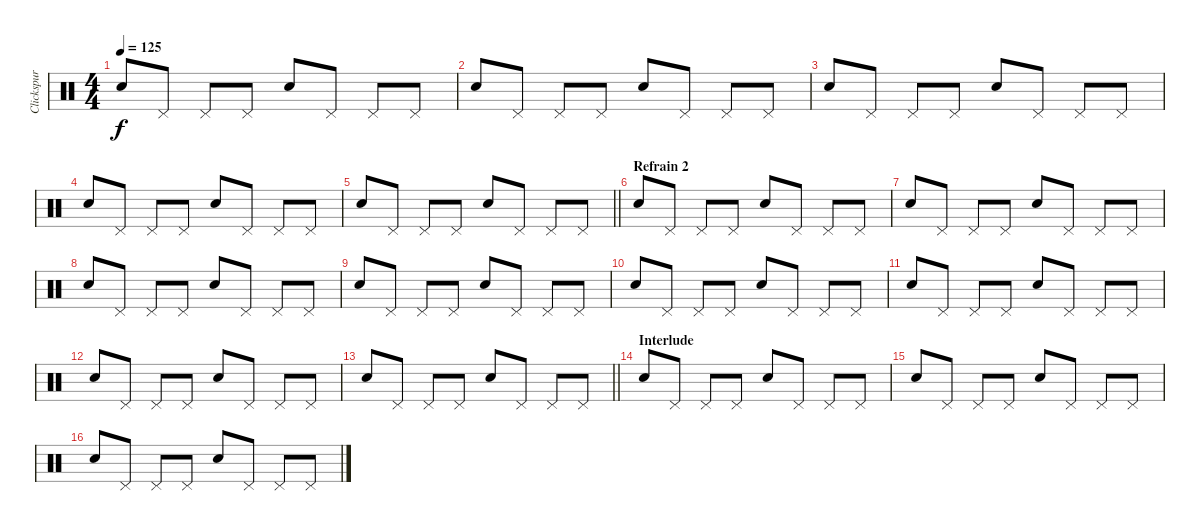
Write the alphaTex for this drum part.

\track ("Clickspur" "Clickspur") {instrument percussion}
\staff {score}
\articulation defaults
\ts (4 4)
\tempo 125
\clef neutral
\ks c "Electric Snare (hit)".8{dy f} "Pedal Hi-Hat (hit)".8 "Pedal Hi-Hat (hit)".8 "Pedal Hi-Hat (hit)".8 "Electric Snare (hit)".8 "Pedal Hi-Hat (hit)".8 "Pedal Hi-Hat (hit)".8 "Pedal Hi-Hat (hit)".8
|
"Electric Snare (hit)".8 "Pedal Hi-Hat (hit)".8 "Pedal Hi-Hat (hit)".8 "Pedal Hi-Hat (hit)".8 "Electric Snare (hit)".8 "Pedal Hi-Hat (hit)".8 "Pedal Hi-Hat (hit)".8 "Pedal Hi-Hat (hit)".8 |
"Electric Snare (hit)".8 "Pedal Hi-Hat (hit)".8 "Pedal Hi-Hat (hit)".8 "Pedal Hi-Hat (hit)".8 "Electric Snare (hit)".8 "Pedal Hi-Hat (hit)".8 "Pedal Hi-Hat (hit)".8 "Pedal Hi-Hat (hit)".8 |
"Electric Snare (hit)".8 "Pedal Hi-Hat (hit)".8 "Pedal Hi-Hat (hit)".8 "Pedal Hi-Hat (hit)".8 "Electric Snare (hit)".8 "Pedal Hi-Hat (hit)".8 "Pedal Hi-Hat (hit)".8 "Pedal Hi-Hat (hit)".8 |
\barLineRight lightlight "Electric Snare (hit)".8 "Pedal Hi-Hat (hit)".8 "Pedal Hi-Hat (hit)".8 "Pedal Hi-Hat (hit)".8 "Electric Snare (hit)".8 "Pedal Hi-Hat (hit)".8 "Pedal Hi-Hat (hit)".8 "Pedal Hi-Hat (hit)".8
|
\section ("" "Refrain 2")
"Electric Snare (hit)".8 "Pedal Hi-Hat (hit)".8 "Pedal Hi-Hat (hit)".8 "Pedal Hi-Hat (hit)".8 "Electric Snare (hit)".8 "Pedal Hi-Hat (hit)".8 "Pedal Hi-Hat (hit)".8 "Pedal Hi-Hat (hit)".8 |
"Electric Snare (hit)".8 "Pedal Hi-Hat (hit)".8 "Pedal Hi-Hat (hit)".8 "Pedal Hi-Hat (hit)".8 "Electric Snare (hit)".8 "Pedal Hi-Hat (hit)".8 "Pedal Hi-Hat (hit)".8 "Pedal Hi-Hat (hit)".8 |
"Electric Snare (hit)".8 "Pedal Hi-Hat (hit)".8 "Pedal Hi-Hat (hit)".8 "Pedal Hi-Hat (hit)".8 "Electric Snare (hit)".8 "Pedal Hi-Hat (hit)".8 "Pedal Hi-Hat (hit)".8 "Pedal Hi-Hat (hit)".8 |
"Electric Snare (hit)".8 "Pedal Hi-Hat (hit)".8 "Pedal Hi-Hat (hit)".8 "Pedal Hi-Hat (hit)".8 "Electric Snare (hit)".8 "Pedal Hi-Hat (hit)".8 "Pedal Hi-Hat (hit)".8 "Pedal Hi-Hat (hit)".8 |
"Electric Snare (hit)".8 "Pedal Hi-Hat (hit)".8 "Pedal Hi-Hat (hit)".8 "Pedal Hi-Hat (hit)".8 "Electric Snare (hit)".8 "Pedal Hi-Hat (hit)".8 "Pedal Hi-Hat (hit)".8 "Pedal Hi-Hat (hit)".8 |
"Electric Snare (hit)".8 "Pedal Hi-Hat (hit)".8 "Pedal Hi-Hat (hit)".8 "Pedal Hi-Hat (hit)".8 "Electric Snare (hit)".8 "Pedal Hi-Hat (hit)".8 "Pedal Hi-Hat (hit)".8 "Pedal Hi-Hat (hit)".8 |
"Electric Snare (hit)".8 "Pedal Hi-Hat (hit)".8 "Pedal Hi-Hat (hit)".8 "Pedal Hi-Hat (hit)".8 "Electric Snare (hit)".8 "Pedal Hi-Hat (hit)".8 "Pedal Hi-Hat (hit)".8 "Pedal Hi-Hat (hit)".8 |
\barLineRight lightlight "Electric Snare (hit)".8 "Pedal Hi-Hat (hit)".8 "Pedal Hi-Hat (hit)".8 "Pedal Hi-Hat (hit)".8 "Electric Snare (hit)".8 "Pedal Hi-Hat (hit)".8 "Pedal Hi-Hat (hit)".8 "Pedal Hi-Hat (hit)".8
|
\section ("" "Interlude")
"Electric Snare (hit)".8 "Pedal Hi-Hat (hit)".8 "Pedal Hi-Hat (hit)".8 "Pedal Hi-Hat (hit)".8 "Electric Snare (hit)".8 "Pedal Hi-Hat (hit)".8 "Pedal Hi-Hat (hit)".8 "Pedal Hi-Hat (hit)".8 |
"Electric Snare (hit)".8 "Pedal Hi-Hat (hit)".8 "Pedal Hi-Hat (hit)".8 "Pedal Hi-Hat (hit)".8 "Electric Snare (hit)".8 "Pedal Hi-Hat (hit)".8 "Pedal Hi-Hat (hit)".8 "Pedal Hi-Hat (hit)".8 |
"Electric Snare (hit)".8 "Pedal Hi-Hat (hit)".8 "Pedal Hi-Hat (hit)".8 "Pedal Hi-Hat (hit)".8 "Electric Snare (hit)".8 "Pedal Hi-Hat (hit)".8 "Pedal Hi-Hat (hit)".8 "Pedal Hi-Hat (hit)".8
